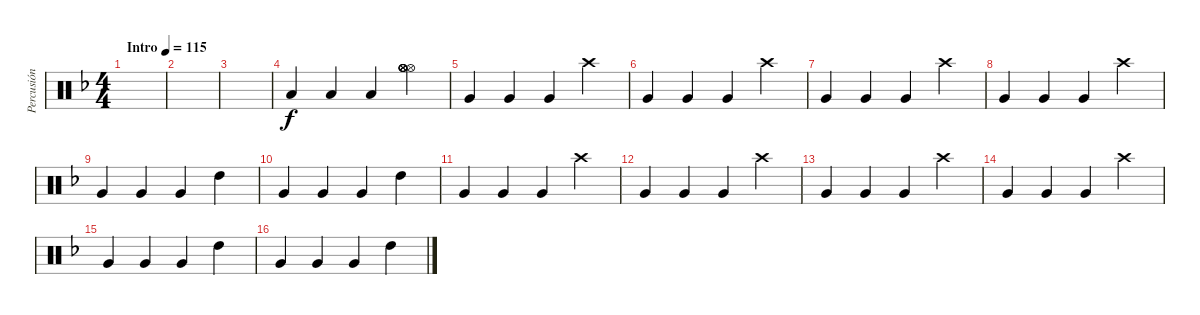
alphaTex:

\track ("Percusión" "Percusión") {instrument percussion}
\staff {score}
\articulation defaults
\ts (4 4)
\tempo (115 "Intro")
\clef neutral
\ks dminor
|
|
|
"Low Floor Tom (hit)".4 "Low Floor Tom (hit)".4 "Low Tom (hit)".4 ("Hi-Hat (open)" "Hi-Hat (open)" "Hi-Hat (open)" "Hi-Hat (open)" "Hi-Hat (open)" "Hi-Hat (open)").4 |
"Very Low Tom (hit)".4 "Very Low Tom (hit)".4 "Very Low Tom (hit)".4 "Crash high (hit)".4 |
"Very Low Tom (hit)".4 "Very Low Tom (hit)".4 "Very Low Tom (hit)".4 "Crash high (hit)".4 |
"Very Low Tom (hit)".4 "Very Low Tom (hit)".4 "Very Low Tom (hit)".4 "Crash high (hit)".4 |
"Very Low Tom (hit)".4 "Very Low Tom (hit)".4 "Very Low Tom (hit)".4 "Crash high (hit)".4 |
"Very Low Tom (hit)".4 "Very Low Tom (hit)".4 "Very Low Tom (hit)".4 "High Tom (hit)".4 |
"Very Low Tom (hit)".4 "Very Low Tom (hit)".4 "Very Low Tom (hit)".4 "High Tom (hit)".4 |
"Very Low Tom (hit)".4 "Very Low Tom (hit)".4 "Very Low Tom (hit)".4 "Crash high (hit)".4 |
"Very Low Tom (hit)".4 "Very Low Tom (hit)".4 "Very Low Tom (hit)".4 "Crash high (hit)".4 |
"Very Low Tom (hit)".4 "Very Low Tom (hit)".4 "Very Low Tom (hit)".4 "Crash high (hit)".4 |
"Very Low Tom (hit)".4 "Very Low Tom (hit)".4 "Very Low Tom (hit)".4 "Crash high (hit)".4 |
"Very Low Tom (hit)".4 "Very Low Tom (hit)".4 "Very Low Tom (hit)".4 "High Tom (hit)".4 |
"Very Low Tom (hit)".4 "Very Low Tom (hit)".4 "Very Low Tom (hit)".4 "High Tom (hit)".4
